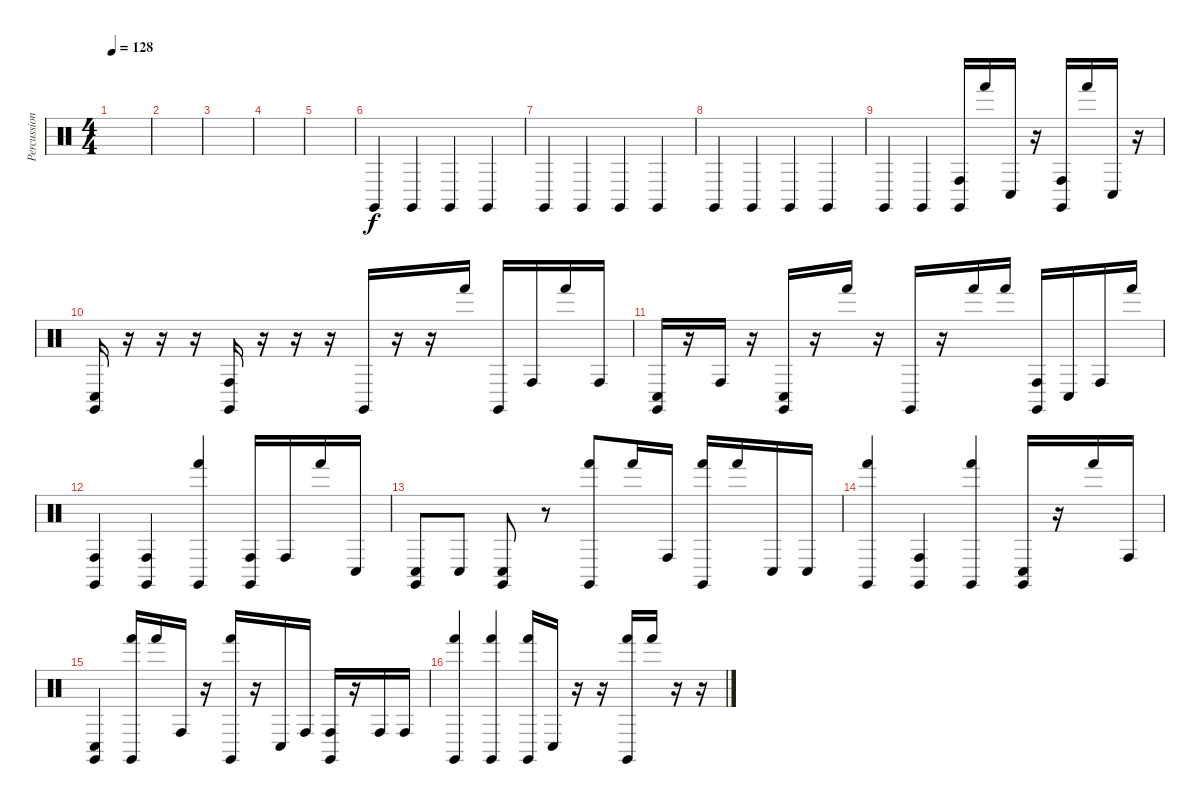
\track ("Percussion" "Percussion") {instrument percussion}
\staff {score}
\articulation defaults
\ts (4 4)
\tempo 128
\clef neutral
\ks c
|
|
|
|
|
"Claves (hit)".4 "Claves (hit)".4 "Claves (hit)".4 "Claves (hit)".4 |
"Claves (hit)".4 "Claves (hit)".4 "Claves (hit)".4 "Claves (hit)".4 |
"Claves (hit)".4 "Claves (hit)".4 "Claves (hit)".4 "Claves (hit)".4 |
"Claves (hit)".4 "Claves (hit)".4 ("Claves (hit)" "Conga high (hit)").16 "Hand (hit)".16 "Conga low (hit)".16 r.16 ("Claves (hit)" "Conga high (hit)").16 "Hand (hit)".16 "Conga low (hit)".16 r.16 |
("Claves (hit)" "Conga low (hit)").16 r.16 r.16 r.16 ("Claves (hit)" "Conga high (hit)").16 r.16 r.16 r.16 "Claves (hit)".16 r.16 r.16 "Hand (hit)".16 "Claves (hit)".16 "Conga high (hit)".16 "Hand (hit)".16 "Conga high (hit)".16 |
("Claves (hit)" "Conga low (hit)").16 r.16 "Conga high (hit)".16 r.16 ("Claves (hit)" "Conga low (hit)").16 r.16 "Hand (hit)".16 r.16 "Claves (hit)".16 r.16 "Hand (hit)".16 "Hand (hit)".16 ("Claves (hit)" "Conga high (hit)").16 "Conga low (hit)".16 "Conga high (hit)".16 "Hand (hit)".16 |
("Claves (hit)" "Conga high (hit)").4 ("Claves (hit)" "Conga high (hit)").4 ("Claves (hit)" "Hand (hit)").4 ("Claves (hit)" "Conga high (hit)").16 "Conga high (hit)".16 "Hand (hit)".16 "Conga low (hit)".16 |
("Claves (hit)" "Conga low (hit)").8 "Conga low (hit)".8 ("Claves (hit)" "Conga low (hit)").8 r.8 ("Claves (hit)" "Hand (hit)").8 "Hand (hit)".16 "Conga high (hit)".16 ("Claves (hit)" "Hand (hit)").16 "Hand (hit)".16 "Conga low (hit)".16 "Conga low (hit)".16 |
("Claves (hit)" "Hand (hit)").4 ("Claves (hit)" "Conga high (hit)").4 ("Claves (hit)" "Hand (hit)").4 ("Claves (hit)" "Conga low (hit)").16 r.16 "Hand (hit)".16 "Conga high (hit)".16 |
("Claves (hit)" "Conga low (hit)").4 ("Claves (hit)" "Hand (hit)").16 "Hand (hit)".16 "Conga high (hit)".16 r.16 ("Claves (hit)" "Hand (hit)").16 r.16 "Conga low (hit)".16 "Conga high (hit)".16 ("Claves (hit)" "Conga high (hit)").16 r.16 "Conga high (hit)".16 "Conga high (hit)".16 |
("Claves (hit)" "Hand (hit)").4 ("Claves (hit)" "Hand (hit)").4 ("Claves (hit)" "Hand (hit)").16 "Conga low (hit)".16 r.16 r.16 ("Claves (hit)" "Hand (hit)").16 "Hand (hit)".16 r.16 r.16
